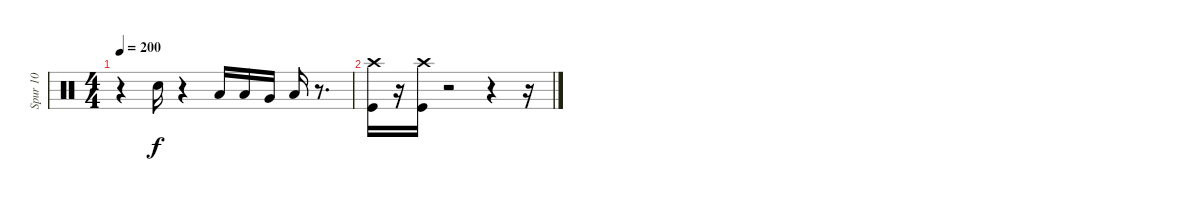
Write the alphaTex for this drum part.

\track ("Spur 10" "Spur 10") {instrument percussion}
\staff {score}
\articulation defaults
\ts (4 4)
\tempo 200
\clef neutral
\ks c
r.4{dy f} "Snare (hit) 2".16 r.4 "Low Tom (hit)".16 "Low Tom (hit)".16 "Very Low Tom (hit)".16 "Low Floor Tom (hit)".16 r.8{d} |
("Crash high (hit)" "Kick (hit)").16 r.16 ("Crash high (hit)" "Kick (hit)").16 r.2 r.4 r.16
